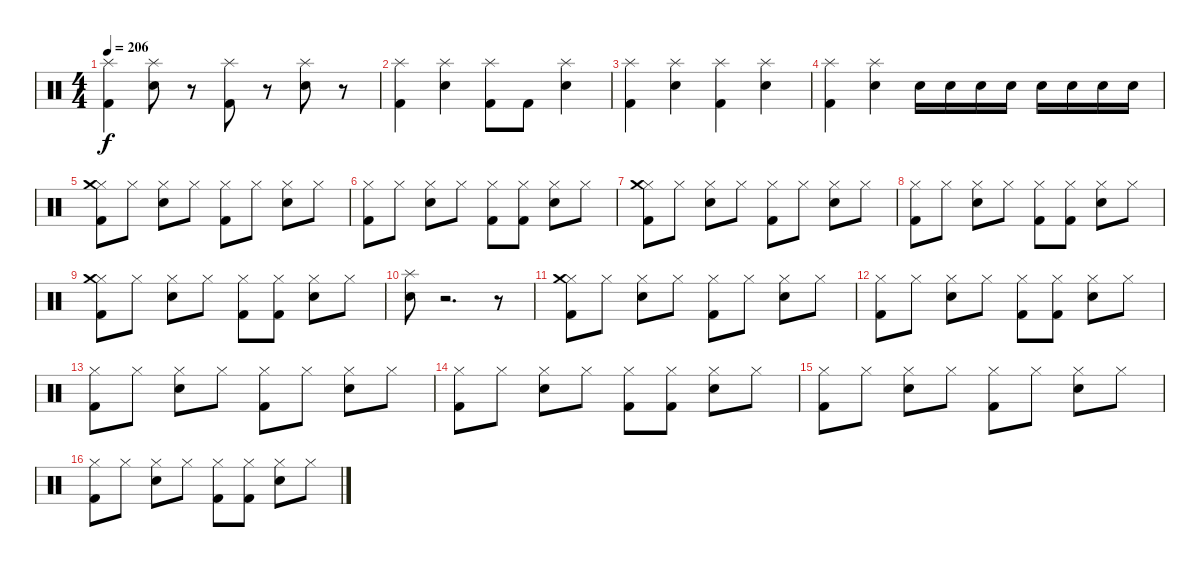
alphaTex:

\track "" {instrument percussion}
\staff {score}
\articulation defaults
\ts (4 4)
\tempo 206
\clef neutral
\ks c
("Splash (hit)" "Kick (hit) 2").4{dy f} ("Splash (hit)" "Electric Snare (hit)").8 r.8 ("Splash (hit)" "Kick (hit) 2").8 r.8 ("Splash (hit)" "Electric Snare (hit)").8 r.8 |
("Splash (hit)" "Kick (hit) 2").4 ("Splash (hit)" "Electric Snare (hit)").4 ("Splash (hit)" "Kick (hit) 2").8 "Kick (hit) 2".8 ("Splash (hit)" "Electric Snare (hit)").4 |
("Splash (hit)" "Kick (hit) 2").4 ("Splash (hit)" "Electric Snare (hit)").4 ("Splash (hit)" "Kick (hit) 2").4 ("Splash (hit)" "Electric Snare (hit)").4 |
("Splash (hit)" "Kick (hit) 2").4 ("Splash (hit)" "Electric Snare (hit)").4 "Electric Snare (hit)".16 "Electric Snare (hit)".16 "Electric Snare (hit)".16 "Electric Snare (hit)".16 "Electric Snare (hit)".16 "Electric Snare (hit)".16 "Electric Snare (hit)".16 "Electric Snare (hit)".16 |
("Hi-Hat (closed)" "Crash medium (hit)" "Kick (hit) 2").8 "Hi-Hat (closed)".8 ("Hi-Hat (closed)" "Electric Snare (hit)").8 "Hi-Hat (closed)".8 ("Hi-Hat (closed)" "Kick (hit) 2").8 "Hi-Hat (closed)".8 ("Hi-Hat (closed)" "Electric Snare (hit)").8 "Hi-Hat (closed)".8 |
("Hi-Hat (closed)" "Kick (hit) 2").8 "Hi-Hat (closed)".8 ("Hi-Hat (closed)" "Electric Snare (hit)").8 "Hi-Hat (closed)".8 ("Hi-Hat (closed)" "Kick (hit) 2").8 ("Hi-Hat (closed)" "Kick (hit) 2").8 ("Hi-Hat (closed)" "Electric Snare (hit)").8 "Hi-Hat (closed)".8 |
("Hi-Hat (closed)" "Crash medium (hit)" "Kick (hit) 2").8 "Hi-Hat (closed)".8 ("Hi-Hat (closed)" "Electric Snare (hit)").8 "Hi-Hat (closed)".8 ("Hi-Hat (closed)" "Kick (hit) 2").8 "Hi-Hat (closed)".8 ("Hi-Hat (closed)" "Electric Snare (hit)").8 "Hi-Hat (closed)".8 |
("Hi-Hat (closed)" "Kick (hit) 2").8 "Hi-Hat (closed)".8 ("Hi-Hat (closed)" "Electric Snare (hit)").8 "Hi-Hat (closed)".8 ("Hi-Hat (closed)" "Kick (hit) 2").8 ("Hi-Hat (closed)" "Kick (hit) 2").8 ("Hi-Hat (closed)" "Electric Snare (hit)").8 "Hi-Hat (closed)".8 |
("Hi-Hat (closed)" "Crash medium (hit)" "Kick (hit) 2").8 "Hi-Hat (closed)".8 ("Hi-Hat (closed)" "Electric Snare (hit)").8 "Hi-Hat (closed)".8 ("Hi-Hat (closed)" "Kick (hit) 2").8 ("Kick (hit) 2" "Hi-Hat (closed)").8 ("Hi-Hat (closed)" "Electric Snare (hit)").8 "Hi-Hat (closed)".8 |
("Electric Snare (hit)" "Splash (hit)").8 r.2{d} r.8 |
("Hi-Hat (closed)" "Crash medium (hit)" "Kick (hit) 2").8 "Hi-Hat (closed)".8 ("Hi-Hat (closed)" "Electric Snare (hit)").8 "Hi-Hat (closed)".8 ("Hi-Hat (closed)" "Kick (hit) 2").8 "Hi-Hat (closed)".8 ("Hi-Hat (closed)" "Electric Snare (hit)").8 "Hi-Hat (closed)".8 |
("Hi-Hat (closed)" "Kick (hit) 2").8 "Hi-Hat (closed)".8 ("Hi-Hat (closed)" "Electric Snare (hit)").8 "Hi-Hat (closed)".8 ("Hi-Hat (closed)" "Kick (hit) 2").8 ("Hi-Hat (closed)" "Kick (hit) 2").8 ("Hi-Hat (closed)" "Electric Snare (hit)").8 "Hi-Hat (closed)".8 |
("Hi-Hat (closed)" "Kick (hit) 2").8 "Hi-Hat (closed)".8 ("Hi-Hat (closed)" "Electric Snare (hit)").8 "Hi-Hat (closed)".8 ("Hi-Hat (closed)" "Kick (hit) 2").8 "Hi-Hat (closed)".8 ("Hi-Hat (closed)" "Electric Snare (hit)").8 "Hi-Hat (closed)".8 |
("Hi-Hat (closed)" "Kick (hit) 2").8 "Hi-Hat (closed)".8 ("Hi-Hat (closed)" "Electric Snare (hit)").8 "Hi-Hat (closed)".8 ("Hi-Hat (closed)" "Kick (hit) 2").8 ("Hi-Hat (closed)" "Kick (hit) 2").8 ("Hi-Hat (closed)" "Electric Snare (hit)").8 "Hi-Hat (closed)".8 |
("Hi-Hat (closed)" "Kick (hit) 2").8 "Hi-Hat (closed)".8 ("Hi-Hat (closed)" "Electric Snare (hit)").8 "Hi-Hat (closed)".8 ("Hi-Hat (closed)" "Kick (hit) 2").8 "Hi-Hat (closed)".8 ("Hi-Hat (closed)" "Electric Snare (hit)").8 "Hi-Hat (closed)".8 |
("Hi-Hat (closed)" "Kick (hit) 2").8 "Hi-Hat (closed)".8 ("Hi-Hat (closed)" "Electric Snare (hit)").8 "Hi-Hat (closed)".8 ("Hi-Hat (closed)" "Kick (hit) 2").8 ("Hi-Hat (closed)" "Kick (hit) 2").8 ("Hi-Hat (closed)" "Electric Snare (hit)").8 "Hi-Hat (closed)".8
